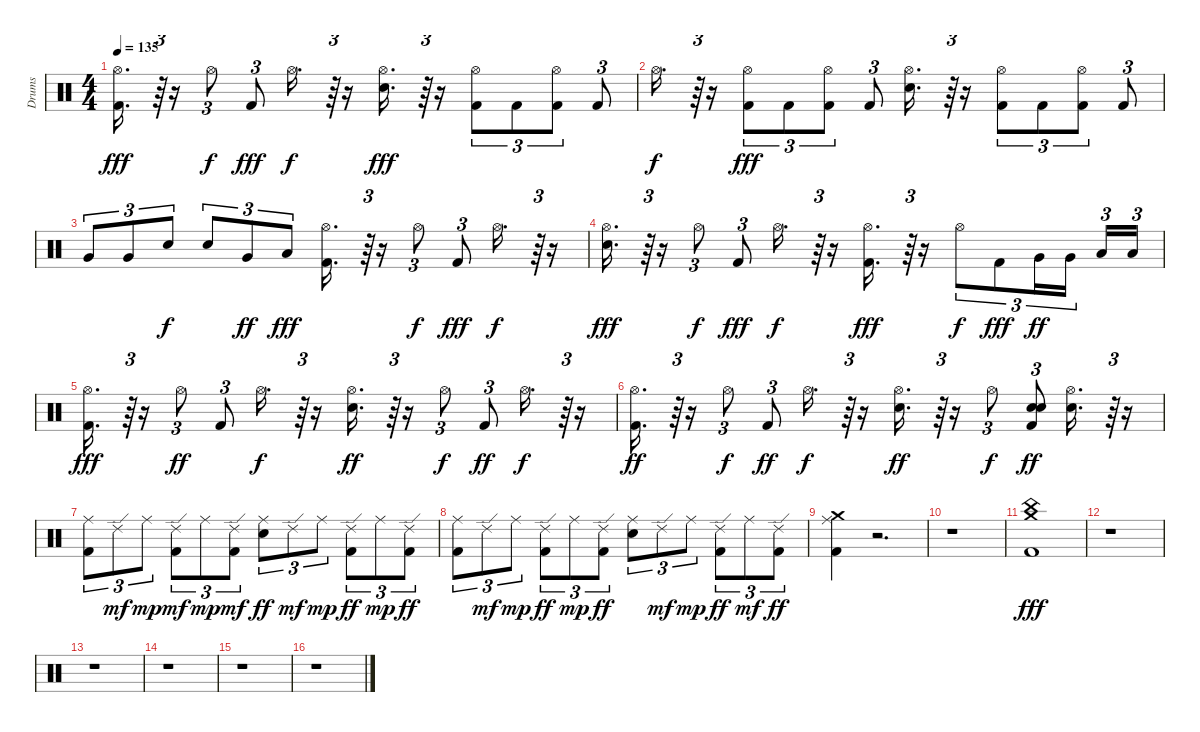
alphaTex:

\track ("Drums" "Drums") {instrument percussion}
\staff {score}
\articulation defaults
\ts (4 4)
\tempo 135
\clef neutral
\ks c
("Hi-Hat (open)" "Kick (hit) 2").16{d dy fff} r.64{tu (3 2)} r.16 "Hi-Hat (open)".8{tu (3 2) dy f} "Kick (hit) 2".8{tu (3 2) dy fff} "Hi-Hat (open)".16{d dy f} r.64{tu (3 2)} r.16 ("Hi-Hat (open)" "Snare (hit) 2").16{d dy fff} r.64{tu (3 2)} r.16 ("Hi-Hat (open)" "Kick (hit) 2").8{tu (3 2)} "Kick (hit) 2".8{tu (3 2)} ("Hi-Hat (open)" "Kick (hit) 2").8{tu (3 2)} "Kick (hit) 2".8{tu (3 2)} |
"Hi-Hat (open)".16{d dy f} r.64{tu (3 2)} r.16 ("Hi-Hat (open)" "Kick (hit) 2").8{tu (3 2) dy fff} "Kick (hit) 2".8{tu (3 2)} ("Hi-Hat (open)" "Kick (hit) 2").8{tu (3 2)} "Kick (hit) 2".8{tu (3 2)} ("Hi-Hat (open)" "Snare (hit) 2").16{d} r.64{tu (3 2)} r.16 ("Hi-Hat (open)" "Kick (hit) 2").8{tu (3 2)} "Kick (hit) 2".8{tu (3 2)} ("Hi-Hat (open)" "Kick (hit) 2").8{tu (3 2)} "Kick (hit) 2".8{tu (3 2)} |
"Very Low Tom (hit)".8{tu (3 2)} "Very Low Tom (hit)".8{tu (3 2)} "Snare (hit) 2".8{tu (3 2) dy f} "Snare (hit) 2".8{tu (3 2)} "Very Low Tom (hit)".8{tu (3 2) dy ff} "Low Tom (hit)".8{tu (3 2) dy fff} ("Hi-Hat (open)" "Kick (hit) 2").16{d} r.64{tu (3 2)} r.16 "Hi-Hat (open)".8{tu (3 2) dy f} "Kick (hit) 2".8{tu (3 2) dy fff} "Hi-Hat (open)".16{d dy f} r.64{tu (3 2)} r.16 |
("Hi-Hat (open)" "Snare (hit) 2").16{d dy fff} r.64{tu (3 2)} r.16 "Hi-Hat (open)".8{tu (3 2) dy f} "Kick (hit) 2".8{tu (3 2) dy fff} "Hi-Hat (open)".16{d dy f} r.64{tu (3 2)} r.16 ("Hi-Hat (open)" "Kick (hit) 2").16{d dy fff} r.64{tu (3 2)} r.16 "Hi-Hat (open)".8{tu (3 2) dy f} "Kick (hit) 2".8{tu (3 2) dy fff} "Very Low Tom (hit)".16{tu (3 2) dy ff} "Very Low Tom (hit)".16{tu (3 2) beam splitsecondary} "Low Floor Tom (hit)".16{tu (3 2)} "Low Floor Tom (hit)".16{tu (3 2)} |
("Hi-Hat (open)" "Kick (hit) 2").16{d dy fff} r.64{tu (3 2)} r.16 "Hi-Hat (open)".8{tu (3 2) dy ff} "Kick (hit) 2".8{tu (3 2)} "Hi-Hat (open)".16{d dy f} r.64{tu (3 2)} r.16 ("Snare (hit) 2" "Hi-Hat (open)").16{d dy ff} r.64{tu (3 2)} r.16 "Hi-Hat (open)".8{tu (3 2) dy f} "Kick (hit) 2".8{tu (3 2) dy ff} "Hi-Hat (open)".16{d dy f} r.64{tu (3 2)} r.16 |
("Hi-Hat (open)" "Kick (hit) 2").16{d dy ff} r.64{tu (3 2)} r.16 "Hi-Hat (open)".8{tu (3 2) dy f} "Kick (hit) 2".8{tu (3 2) dy ff} "Hi-Hat (open)".16{d dy f} r.64{tu (3 2)} r.16 ("Snare (hit) 2" "Hi-Hat (open)").16{d dy ff} r.64{tu (3 2)} r.16 "Hi-Hat (open)".8{tu (3 2) dy f} ("Snare (hit) 2" "Kick (hit) 2" "Snare (hit) 2").8{tu (3 2) dy ff} ("Hi-Hat (open)" "Snare (hit) 2").16{d} r.64{tu (3 2)} r.16 |
("Ride (middle)" "Kick (hit) 2").8{tu (3 2)} "Ride (edge) 2".8{tu (3 2) dy mf} "Ride (middle)".8{tu (3 2) dy mp} ("Kick (hit) 2" "Ride (edge) 2").8{tu (3 2) dy mf} "Ride (middle)".8{tu (3 2) dy mp} ("Kick (hit) 2" "Ride (edge) 2").8{tu (3 2) dy mf} ("Ride (middle)" "Snare (hit) 2").8{tu (3 2) dy ff} "Ride (edge) 2".8{tu (3 2) dy mf} "Ride (middle)".8{tu (3 2) dy mp} ("Ride (edge) 2" "Kick (hit) 2").8{tu (3 2) dy ff} "Ride (middle)".8{tu (3 2) dy mp} ("Ride (edge) 2" "Kick (hit) 2").8{tu (3 2) dy ff} |
("Ride (middle)" "Kick (hit) 2").8{tu (3 2)} "Ride (edge) 2".8{tu (3 2) dy mf} "Ride (middle)".8{tu (3 2) dy mp} ("Ride (edge) 2" "Kick (hit) 2").8{tu (3 2) dy ff} "Ride (middle)".8{tu (3 2) dy mp} ("Ride (edge) 2" "Kick (hit) 2").8{tu (3 2) dy ff} ("Ride (middle)" "Snare (hit) 2").8{tu (3 2)} "Ride (edge) 2".8{tu (3 2) dy mf} "Ride (middle)".8{tu (3 2) dy mp} ("Ride (edge) 2" "Kick (hit) 2").8{tu (3 2) dy ff} "Ride (middle)".8{tu (3 2) dy mf} ("Kick (hit) 2" "Ride (edge) 2").8{tu (3 2) dy ff} |
("Ride (middle)" "Crash medium (hit)" "Kick (hit) 2").4 r.2{d} |
r.1 |
("China (hit)" "Crash medium (hit)" "Kick (hit) 2").1{dy fff} |
r.1 |
r.1 |
r.1 |
r.1 |
r.1
